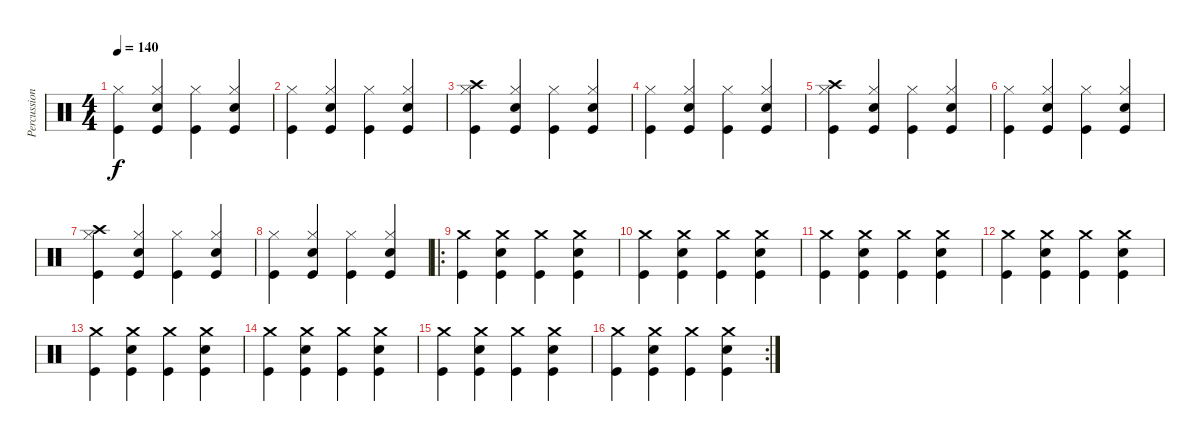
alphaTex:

\track ("Percussion" "Percussion") {instrument percussion}
\staff {score}
\articulation defaults
\ts (4 4)
\tempo 140
\clef neutral
\ks c
("Kick (hit)" "Hi-Hat (closed)").4{dy f} ("Kick (hit)" "Electric Snare (hit)" "Hi-Hat (closed)").4 ("Kick (hit)" "Hi-Hat (closed)").4 ("Kick (hit)" "Electric Snare (hit)" "Hi-Hat (closed)").4 |
("Kick (hit)" "Hi-Hat (closed)").4 ("Kick (hit)" "Electric Snare (hit)" "Hi-Hat (closed)").4 ("Kick (hit)" "Hi-Hat (closed)").4 ("Kick (hit)" "Electric Snare (hit)" "Hi-Hat (closed)").4 |
("Crash high (hit)" "Kick (hit)" "Hi-Hat (closed)").4 ("Kick (hit)" "Electric Snare (hit)" "Hi-Hat (closed)").4 ("Kick (hit)" "Hi-Hat (closed)").4 ("Kick (hit)" "Electric Snare (hit)" "Hi-Hat (closed)").4 |
("Kick (hit)" "Hi-Hat (closed)").4 ("Kick (hit)" "Electric Snare (hit)" "Hi-Hat (closed)").4 ("Kick (hit)" "Hi-Hat (closed)").4 ("Kick (hit)" "Electric Snare (hit)" "Hi-Hat (closed)").4 |
("Crash high (hit)" "Kick (hit)" "Hi-Hat (closed)").4 ("Kick (hit)" "Electric Snare (hit)" "Hi-Hat (closed)").4 ("Kick (hit)" "Hi-Hat (closed)").4 ("Kick (hit)" "Electric Snare (hit)" "Hi-Hat (closed)").4 |
("Kick (hit)" "Hi-Hat (closed)").4 ("Kick (hit)" "Electric Snare (hit)" "Hi-Hat (closed)").4 ("Kick (hit)" "Hi-Hat (closed)").4 ("Kick (hit)" "Electric Snare (hit)" "Hi-Hat (closed)").4 |
("Kick (hit)" "Crash high (hit)" "Hi-Hat (closed)").4 ("Kick (hit)" "Electric Snare (hit)" "Hi-Hat (closed)").4 ("Kick (hit)" "Hi-Hat (closed)").4 ("Kick (hit)" "Electric Snare (hit)" "Hi-Hat (closed)").4 |
("Kick (hit)" "Hi-Hat (closed)").4 ("Kick (hit)" "Electric Snare (hit)" "Hi-Hat (closed)").4 ("Kick (hit)" "Hi-Hat (closed)").4 ("Kick (hit)" "Electric Snare (hit)" "Hi-Hat (closed)").4 |
\ro
("Kick (hit)" "Crash medium (hit)").4 ("Kick (hit)" "Electric Snare (hit)" "Crash medium (hit)").4 ("Kick (hit)" "Crash medium (hit)").4 ("Kick (hit)" "Electric Snare (hit)" "Crash medium (hit)").4 |
("Kick (hit)" "Crash medium (hit)").4 ("Kick (hit)" "Electric Snare (hit)" "Crash medium (hit)").4 ("Kick (hit)" "Crash medium (hit)").4 ("Kick (hit)" "Electric Snare (hit)" "Crash medium (hit)").4 |
("Kick (hit)" "Crash medium (hit)").4 ("Kick (hit)" "Electric Snare (hit)" "Crash medium (hit)").4 ("Kick (hit)" "Crash medium (hit)").4 ("Kick (hit)" "Electric Snare (hit)" "Crash medium (hit)").4 |
("Kick (hit)" "Crash medium (hit)").4 ("Kick (hit)" "Electric Snare (hit)" "Crash medium (hit)").4 ("Kick (hit)" "Crash medium (hit)").4 ("Kick (hit)" "Electric Snare (hit)" "Crash medium (hit)").4 |
("Kick (hit)" "Crash medium (hit)").4 ("Kick (hit)" "Electric Snare (hit)" "Crash medium (hit)").4 ("Kick (hit)" "Crash medium (hit)").4 ("Kick (hit)" "Electric Snare (hit)" "Crash medium (hit)").4 |
("Kick (hit)" "Crash medium (hit)").4 ("Kick (hit)" "Electric Snare (hit)" "Crash medium (hit)").4 ("Kick (hit)" "Crash medium (hit)").4 ("Kick (hit)" "Electric Snare (hit)" "Crash medium (hit)").4 |
("Kick (hit)" "Crash medium (hit)").4 ("Kick (hit)" "Electric Snare (hit)" "Crash medium (hit)").4 ("Kick (hit)" "Crash medium (hit)").4 ("Kick (hit)" "Electric Snare (hit)" "Crash medium (hit)").4 |
\rc 2
("Kick (hit)" "Crash medium (hit)").4 ("Kick (hit)" "Electric Snare (hit)" "Crash medium (hit)").4 ("Kick (hit)" "Crash medium (hit)").4 ("Kick (hit)" "Electric Snare (hit)" "Crash medium (hit)").4
